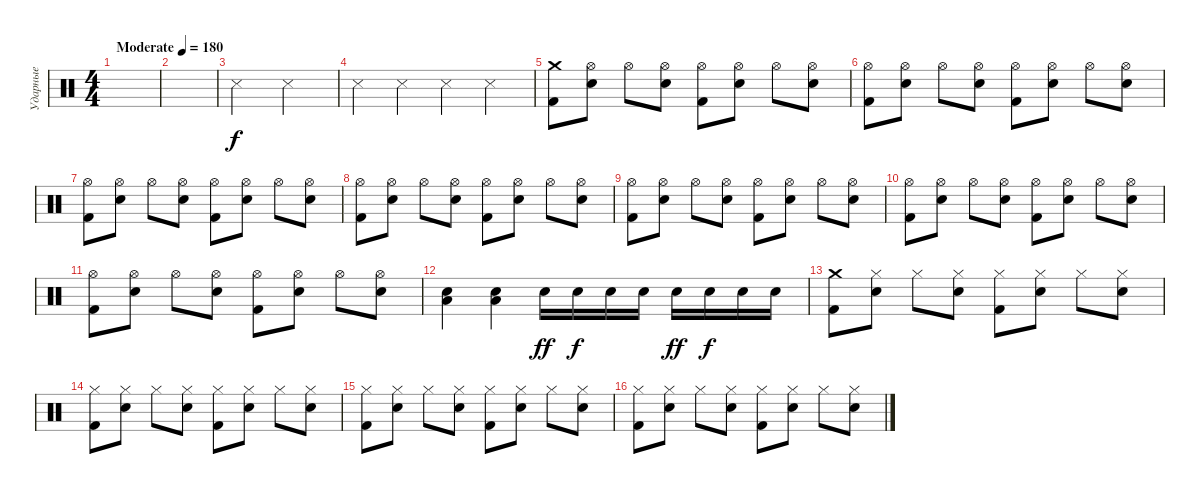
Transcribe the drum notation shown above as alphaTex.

\track ("Ударные" "Ударные") {instrument percussion}
\staff {score}
\articulation defaults
\ts (4 4)
\tempo (180 "Moderate")
\clef neutral
\ks c
|
|
"Snare (side stick) 3".2 "Snare (side stick) 3".2 |
"Snare (side stick) 3".4 "Snare (side stick) 3".4 "Snare (side stick) 3".4 "Snare (side stick) 3".4 |
("Crash medium (hit)" "Kick (hit) 2").8 ("Hi-Hat (open)" "Snare (hit) 2").8 "Hi-Hat (open)".8 ("Hi-Hat (open)" "Snare (hit) 2").8 ("Hi-Hat (open)" "Kick (hit) 2").8 ("Hi-Hat (open)" "Snare (hit) 2").8 "Hi-Hat (open)".8 ("Hi-Hat (open)" "Snare (hit) 2").8 |
("Hi-Hat (open)" "Kick (hit) 2").8 ("Hi-Hat (open)" "Snare (hit) 2").8 "Hi-Hat (open)".8 ("Hi-Hat (open)" "Snare (hit) 2").8 ("Hi-Hat (open)" "Kick (hit) 2").8 ("Hi-Hat (open)" "Snare (hit) 2").8 "Hi-Hat (open)".8 ("Hi-Hat (open)" "Snare (hit) 2").8 |
("Hi-Hat (open)" "Kick (hit) 2").8 ("Hi-Hat (open)" "Snare (hit) 2").8 "Hi-Hat (open)".8 ("Hi-Hat (open)" "Snare (hit) 2").8 ("Hi-Hat (open)" "Kick (hit) 2").8 ("Hi-Hat (open)" "Snare (hit) 2").8 "Hi-Hat (open)".8 ("Hi-Hat (open)" "Snare (hit) 2").8 |
("Hi-Hat (open)" "Kick (hit) 2").8 ("Hi-Hat (open)" "Snare (hit) 2").8 "Hi-Hat (open)".8 ("Hi-Hat (open)" "Snare (hit) 2").8 ("Hi-Hat (open)" "Kick (hit) 2").8 ("Hi-Hat (open)" "Snare (hit) 2").8 "Hi-Hat (open)".8 ("Hi-Hat (open)" "Snare (hit) 2").8 |
("Hi-Hat (open)" "Kick (hit) 2").8 ("Hi-Hat (open)" "Snare (hit) 2").8 "Hi-Hat (open)".8 ("Hi-Hat (open)" "Snare (hit) 2").8 ("Hi-Hat (open)" "Kick (hit) 2").8 ("Hi-Hat (open)" "Snare (hit) 2").8 "Hi-Hat (open)".8 ("Hi-Hat (open)" "Snare (hit) 2").8 |
("Hi-Hat (open)" "Kick (hit) 2").8 ("Hi-Hat (open)" "Snare (hit) 2").8 "Hi-Hat (open)".8 ("Hi-Hat (open)" "Snare (hit) 2").8 ("Hi-Hat (open)" "Kick (hit) 2").8 ("Hi-Hat (open)" "Snare (hit) 2").8 "Hi-Hat (open)".8 ("Hi-Hat (open)" "Snare (hit) 2").8 |
("Hi-Hat (open)" "Kick (hit) 2").8 ("Hi-Hat (open)" "Snare (hit) 2").8 "Hi-Hat (open)".8 ("Hi-Hat (open)" "Snare (hit) 2").8 ("Hi-Hat (open)" "Kick (hit) 2").8 ("Hi-Hat (open)" "Snare (hit) 2").8 "Hi-Hat (open)".8 ("Hi-Hat (open)" "Snare (hit) 2").8 |
("Low Floor Tom (hit)" "Snare (hit) 2").4 ("Low Floor Tom (hit)" "Snare (hit) 2").4 "Snare (hit) 2".16{dy ff} "Snare (hit) 2".16{dy f} "Snare (hit) 2".16 "Snare (hit) 2".16 "Snare (hit) 2".16{dy ff} "Snare (hit) 2".16{dy f} "Snare (hit) 2".16 "Snare (hit) 2".16 |
("Crash medium (hit)" "Kick (hit) 2").8 ("Hi-Hat (closed)" "Snare (hit) 2").8 "Hi-Hat (closed)".8 ("Hi-Hat (closed)" "Snare (hit) 2").8 ("Hi-Hat (closed)" "Kick (hit) 2").8 ("Hi-Hat (closed)" "Snare (hit) 2").8 "Hi-Hat (closed)".8 ("Hi-Hat (closed)" "Snare (hit) 2").8 |
("Hi-Hat (closed)" "Kick (hit) 2").8 ("Hi-Hat (closed)" "Snare (hit) 2").8 "Hi-Hat (closed)".8 ("Hi-Hat (closed)" "Snare (hit) 2").8 ("Hi-Hat (closed)" "Kick (hit) 2").8 ("Hi-Hat (closed)" "Snare (hit) 2").8 "Hi-Hat (closed)".8 ("Hi-Hat (closed)" "Snare (hit) 2").8 |
("Hi-Hat (closed)" "Kick (hit) 2").8 ("Hi-Hat (closed)" "Snare (hit) 2").8 "Hi-Hat (closed)".8 ("Hi-Hat (closed)" "Snare (hit) 2").8 ("Hi-Hat (closed)" "Kick (hit) 2").8 ("Hi-Hat (closed)" "Snare (hit) 2").8 "Hi-Hat (closed)".8 ("Hi-Hat (closed)" "Snare (hit) 2").8 |
("Hi-Hat (closed)" "Kick (hit) 2").8 ("Hi-Hat (closed)" "Snare (hit) 2").8 "Hi-Hat (closed)".8 ("Hi-Hat (closed)" "Snare (hit) 2").8 ("Hi-Hat (closed)" "Kick (hit) 2").8 ("Hi-Hat (closed)" "Snare (hit) 2").8 "Hi-Hat (closed)".8 ("Hi-Hat (closed)" "Snare (hit) 2").8
